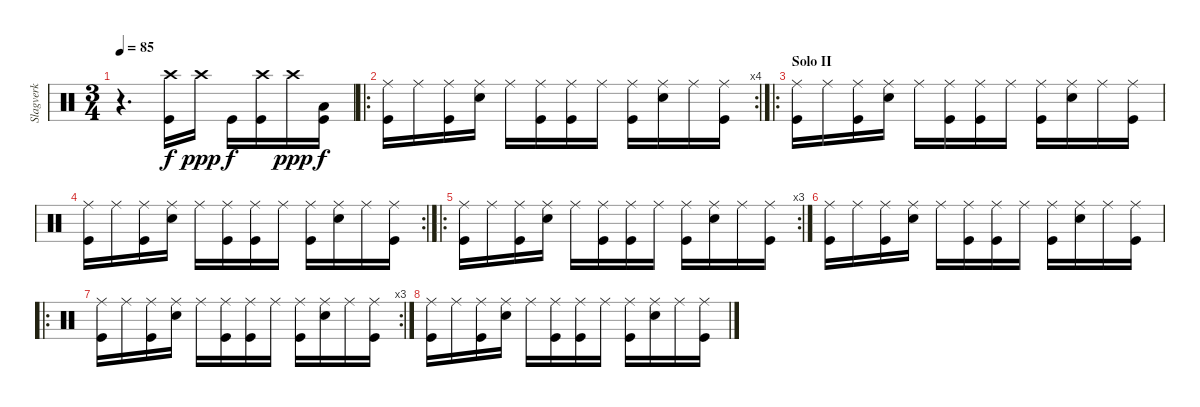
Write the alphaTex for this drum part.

\track ("Slagverk" "Slagverk") {instrument percussion}
\staff {score}
\articulation defaults
\ts (3 4)
\tempo 85
\clef neutral
\ks c
r.4{d dy ppp} ("Crash high (hit)" "Kick (hit)").16{dy f} "Crash high (hit)".16{dy ppp} "Kick (hit)".16{dy f} ("Crash high (hit)" "Kick (hit)").16 "Crash high (hit)".16{dy ppp} ("Low Tom (hit)" "Kick (hit)").16{dy f} |
\ro
\rc 4
("Ride (middle)" "Kick (hit)").16 "Ride (middle)".16 ("Ride (middle)" "Kick (hit)").16 ("Ride (middle)" "Snare (hit) 2").16 "Ride (middle)".16 ("Ride (middle)" "Kick (hit)").16 ("Ride (middle)" "Kick (hit)").16 "Ride (middle)".16 ("Ride (middle)" "Kick (hit)").16 ("Ride (middle)" "Snare (hit) 2").16 "Ride (middle)".16 ("Ride (middle)" "Kick (hit)").16 |
\ro
\section ("" "Solo II")
("Ride (middle)" "Kick (hit)").16 "Ride (middle)".16 ("Ride (middle)" "Kick (hit)").16 ("Ride (middle)" "Snare (hit) 2").16 "Ride (middle)".16 ("Ride (middle)" "Kick (hit)").16 ("Ride (middle)" "Kick (hit)").16 "Ride (middle)".16 ("Ride (middle)" "Kick (hit)").16 ("Ride (middle)" "Snare (hit) 2").16 "Ride (middle)".16 ("Ride (middle)" "Kick (hit)").16 |
\rc 2
("Ride (middle)" "Kick (hit)").16 "Ride (middle)".16 ("Ride (middle)" "Kick (hit)").16 ("Ride (middle)" "Snare (hit) 2").16 "Ride (middle)".16 ("Ride (middle)" "Kick (hit)").16 ("Ride (middle)" "Kick (hit)").16 "Ride (middle)".16 ("Ride (middle)" "Kick (hit)").16 ("Ride (middle)" "Snare (hit) 2").16 "Ride (middle)".16 ("Ride (middle)" "Kick (hit)").16 |
\ro
\rc 3
("Ride (middle)" "Kick (hit)").16 "Ride (middle)".16 ("Ride (middle)" "Kick (hit)").16 ("Ride (middle)" "Snare (hit) 2").16 "Ride (middle)".16 ("Ride (middle)" "Kick (hit)").16 ("Ride (middle)" "Kick (hit)").16 "Ride (middle)".16 ("Ride (middle)" "Kick (hit)").16 ("Ride (middle)" "Snare (hit) 2").16 "Ride (middle)".16 ("Ride (middle)" "Kick (hit)").16 |
("Ride (middle)" "Kick (hit)").16 "Ride (middle)".16 ("Ride (middle)" "Kick (hit)").16 ("Ride (middle)" "Snare (hit) 2").16 "Ride (middle)".16 ("Ride (middle)" "Kick (hit)").16 ("Ride (middle)" "Kick (hit)").16 "Ride (middle)".16 ("Ride (middle)" "Kick (hit)").16 ("Ride (middle)" "Snare (hit) 2").16 "Ride (middle)".16 ("Ride (middle)" "Kick (hit)").16 |
\ro
\rc 3
("Ride (middle)" "Kick (hit)").16 "Ride (middle)".16 ("Ride (middle)" "Kick (hit)").16 ("Ride (middle)" "Snare (hit) 2").16 "Ride (middle)".16 ("Ride (middle)" "Kick (hit)").16 ("Ride (middle)" "Kick (hit)").16 "Ride (middle)".16 ("Ride (middle)" "Kick (hit)").16 ("Ride (middle)" "Snare (hit) 2").16 "Ride (middle)".16 ("Ride (middle)" "Kick (hit)").16 |
("Ride (middle)" "Kick (hit)").16 "Ride (middle)".16 ("Ride (middle)" "Kick (hit)").16 ("Ride (middle)" "Snare (hit) 2").16 "Ride (middle)".16 ("Ride (middle)" "Kick (hit)").16 ("Ride (middle)" "Kick (hit)").16 "Ride (middle)".16 ("Ride (middle)" "Kick (hit)").16 ("Ride (middle)" "Snare (hit) 2").16 "Ride (middle)".16 ("Ride (middle)" "Kick (hit)").16
